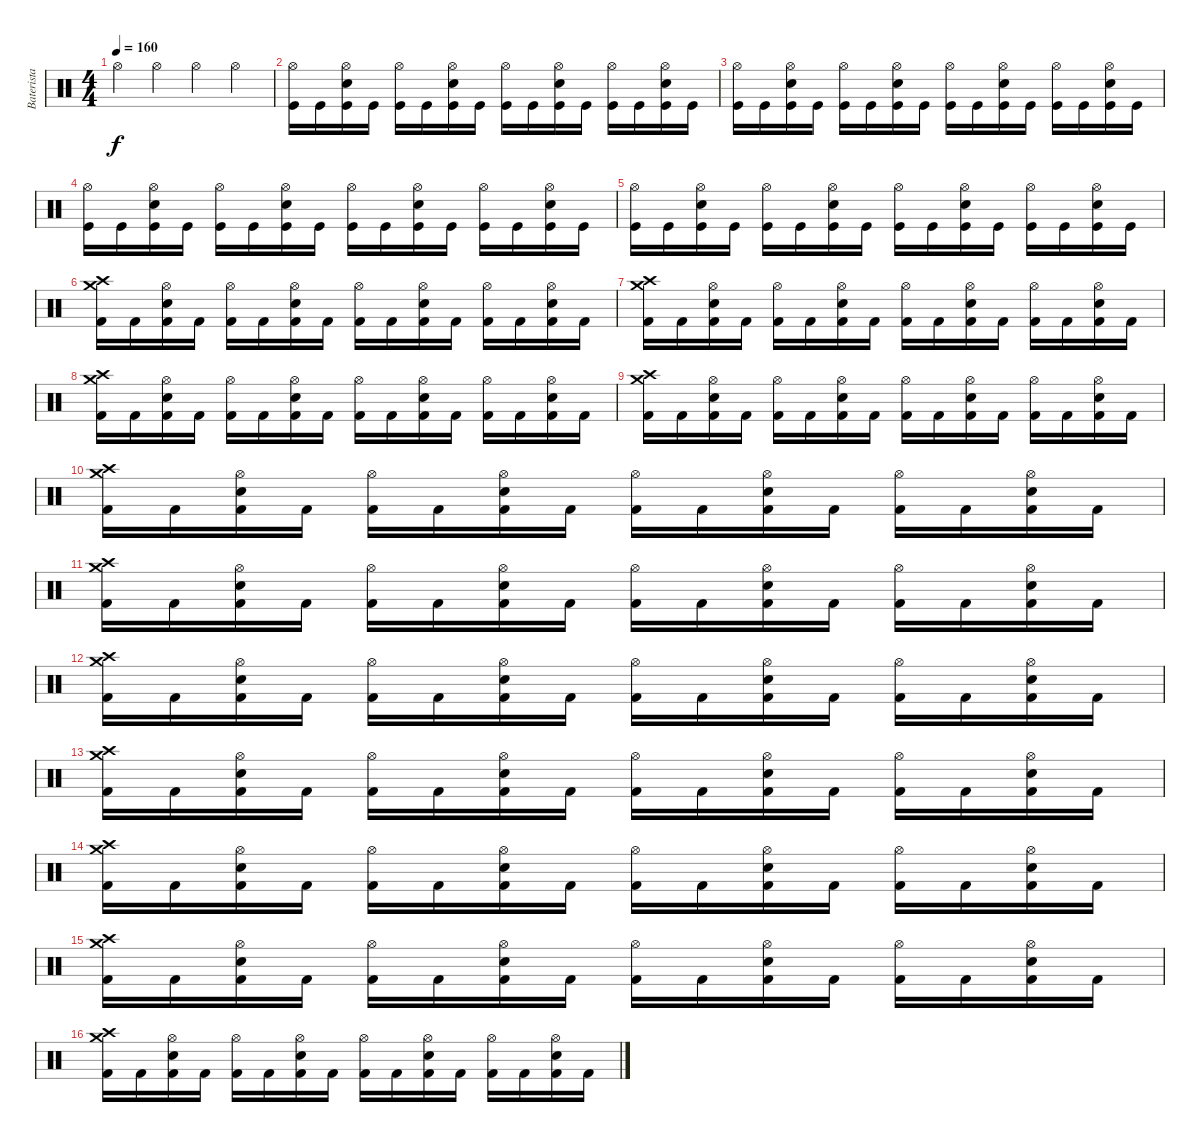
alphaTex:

\track ("Baterista" "Baterista") {instrument percussion}
\staff {score}
\articulation defaults
\ts (4 4)
\tempo 160
\clef neutral
\ks c "Hi-Hat (open)".4{dy f} "Hi-Hat (open)".4 "Hi-Hat (open)".4 "Hi-Hat (open)".4
|
("Hi-Hat (open)" "Kick (hit)").16 "Kick (hit)".16 ("Hi-Hat (open)" "Snare (hit) 2" "Kick (hit)").16 "Kick (hit)".16 ("Hi-Hat (open)" "Kick (hit)").16 "Kick (hit)".16 ("Hi-Hat (open)" "Snare (hit) 2" "Kick (hit)").16 "Kick (hit)".16 ("Hi-Hat (open)" "Kick (hit)").16 "Kick (hit)".16 ("Hi-Hat (open)" "Snare (hit) 2" "Kick (hit)").16 "Kick (hit)".16 ("Hi-Hat (open)" "Kick (hit)").16 "Kick (hit)".16 ("Hi-Hat (open)" "Snare (hit) 2" "Kick (hit)").16 "Kick (hit)".16 |
("Hi-Hat (open)" "Kick (hit)").16 "Kick (hit)".16 ("Hi-Hat (open)" "Snare (hit) 2" "Kick (hit)").16 "Kick (hit)".16 ("Hi-Hat (open)" "Kick (hit)").16 "Kick (hit)".16 ("Hi-Hat (open)" "Snare (hit) 2" "Kick (hit)").16 "Kick (hit)".16 ("Hi-Hat (open)" "Kick (hit)").16 "Kick (hit)".16 ("Hi-Hat (open)" "Snare (hit) 2" "Kick (hit)").16 "Kick (hit)".16 ("Hi-Hat (open)" "Kick (hit)").16 "Kick (hit)".16 ("Hi-Hat (open)" "Snare (hit) 2" "Kick (hit)").16 "Kick (hit)".16 |
("Hi-Hat (open)" "Kick (hit)").16 "Kick (hit)".16 ("Hi-Hat (open)" "Snare (hit) 2" "Kick (hit)").16 "Kick (hit)".16 ("Hi-Hat (open)" "Kick (hit)").16 "Kick (hit)".16 ("Hi-Hat (open)" "Snare (hit) 2" "Kick (hit)").16 "Kick (hit)".16 ("Hi-Hat (open)" "Kick (hit)").16 "Kick (hit)".16 ("Hi-Hat (open)" "Snare (hit) 2" "Kick (hit)").16 "Kick (hit)".16 ("Hi-Hat (open)" "Kick (hit)").16 "Kick (hit)".16 ("Hi-Hat (open)" "Snare (hit) 2" "Kick (hit)").16 "Kick (hit)".16 |
("Hi-Hat (open)" "Kick (hit)").16 "Kick (hit)".16 ("Hi-Hat (open)" "Snare (hit) 2" "Kick (hit)").16 "Kick (hit)".16 ("Hi-Hat (open)" "Kick (hit)").16 "Kick (hit)".16 ("Hi-Hat (open)" "Snare (hit) 2" "Kick (hit)").16 "Kick (hit)".16 ("Hi-Hat (open)" "Kick (hit)").16 "Kick (hit)".16 ("Hi-Hat (open)" "Snare (hit) 2" "Kick (hit)").16 "Kick (hit)".16 ("Hi-Hat (open)" "Kick (hit)").16 "Kick (hit)".16 ("Hi-Hat (open)" "Snare (hit) 2" "Kick (hit)").16 "Kick (hit)".16 |
("Kick (hit) 2" "Crash high (hit)" "Crash medium (hit)").16 "Kick (hit) 2".16 ("Kick (hit) 2" "Electric Snare (hit)" "Hi-Hat (open)").16 "Kick (hit) 2".16 ("Kick (hit) 2" "Hi-Hat (open)").16 "Kick (hit) 2".16 ("Kick (hit) 2" "Electric Snare (hit)" "Hi-Hat (open)").16 "Kick (hit) 2".16 ("Kick (hit) 2" "Hi-Hat (open)").16 "Kick (hit) 2".16 ("Kick (hit) 2" "Electric Snare (hit)" "Hi-Hat (open)").16 "Kick (hit) 2".16 ("Kick (hit) 2" "Hi-Hat (open)").16 "Kick (hit) 2".16 ("Kick (hit) 2" "Electric Snare (hit)" "Hi-Hat (open)").16 "Kick (hit) 2".16 |
("Kick (hit) 2" "Crash high (hit)" "Crash medium (hit)").16 "Kick (hit) 2".16 ("Kick (hit) 2" "Electric Snare (hit)" "Hi-Hat (open)").16 "Kick (hit) 2".16 ("Kick (hit) 2" "Hi-Hat (open)").16 "Kick (hit) 2".16 ("Kick (hit) 2" "Electric Snare (hit)" "Hi-Hat (open)").16 "Kick (hit) 2".16 ("Kick (hit) 2" "Hi-Hat (open)").16 "Kick (hit) 2".16 ("Kick (hit) 2" "Electric Snare (hit)" "Hi-Hat (open)").16 "Kick (hit) 2".16 ("Kick (hit) 2" "Hi-Hat (open)").16 "Kick (hit) 2".16 ("Kick (hit) 2" "Electric Snare (hit)" "Hi-Hat (open)").16 "Kick (hit) 2".16 |
("Kick (hit) 2" "Crash high (hit)" "Crash medium (hit)").16 "Kick (hit) 2".16 ("Kick (hit) 2" "Electric Snare (hit)" "Hi-Hat (open)").16 "Kick (hit) 2".16 ("Kick (hit) 2" "Hi-Hat (open)").16 "Kick (hit) 2".16 ("Kick (hit) 2" "Electric Snare (hit)" "Hi-Hat (open)").16 "Kick (hit) 2".16 ("Kick (hit) 2" "Hi-Hat (open)").16 "Kick (hit) 2".16 ("Kick (hit) 2" "Electric Snare (hit)" "Hi-Hat (open)").16 "Kick (hit) 2".16 ("Kick (hit) 2" "Hi-Hat (open)").16 "Kick (hit) 2".16 ("Kick (hit) 2" "Electric Snare (hit)" "Hi-Hat (open)").16 "Kick (hit) 2".16 |
("Kick (hit) 2" "Crash high (hit)" "Crash medium (hit)").16 "Kick (hit) 2".16 ("Kick (hit) 2" "Electric Snare (hit)" "Hi-Hat (open)").16 "Kick (hit) 2".16 ("Kick (hit) 2" "Hi-Hat (open)").16 "Kick (hit) 2".16 ("Kick (hit) 2" "Electric Snare (hit)" "Hi-Hat (open)").16 "Kick (hit) 2".16 ("Kick (hit) 2" "Hi-Hat (open)").16 "Kick (hit) 2".16 ("Kick (hit) 2" "Electric Snare (hit)" "Hi-Hat (open)").16 "Kick (hit) 2".16 ("Kick (hit) 2" "Hi-Hat (open)").16 "Kick (hit) 2".16 ("Kick (hit) 2" "Electric Snare (hit)" "Hi-Hat (open)").16 "Kick (hit) 2".16 |
("Kick (hit) 2" "Crash high (hit)" "Crash medium (hit)").16 "Kick (hit) 2".16 ("Kick (hit) 2" "Electric Snare (hit)" "Hi-Hat (open)").16 "Kick (hit) 2".16 ("Kick (hit) 2" "Hi-Hat (open)").16 "Kick (hit) 2".16 ("Kick (hit) 2" "Electric Snare (hit)" "Hi-Hat (open)").16 "Kick (hit) 2".16 ("Kick (hit) 2" "Hi-Hat (open)").16 "Kick (hit) 2".16 ("Kick (hit) 2" "Electric Snare (hit)" "Hi-Hat (open)").16 "Kick (hit) 2".16 ("Kick (hit) 2" "Hi-Hat (open)").16 "Kick (hit) 2".16 ("Kick (hit) 2" "Electric Snare (hit)" "Hi-Hat (open)").16 "Kick (hit) 2".16 |
("Kick (hit) 2" "Crash high (hit)" "Crash medium (hit)").16 "Kick (hit) 2".16 ("Kick (hit) 2" "Electric Snare (hit)" "Hi-Hat (open)").16 "Kick (hit) 2".16 ("Kick (hit) 2" "Hi-Hat (open)").16 "Kick (hit) 2".16 ("Kick (hit) 2" "Electric Snare (hit)" "Hi-Hat (open)").16 "Kick (hit) 2".16 ("Kick (hit) 2" "Hi-Hat (open)").16 "Kick (hit) 2".16 ("Kick (hit) 2" "Electric Snare (hit)" "Hi-Hat (open)").16 "Kick (hit) 2".16 ("Kick (hit) 2" "Hi-Hat (open)").16 "Kick (hit) 2".16 ("Kick (hit) 2" "Electric Snare (hit)" "Hi-Hat (open)").16 "Kick (hit) 2".16 |
("Kick (hit) 2" "Crash high (hit)" "Crash medium (hit)").16 "Kick (hit) 2".16 ("Kick (hit) 2" "Electric Snare (hit)" "Hi-Hat (open)").16 "Kick (hit) 2".16 ("Kick (hit) 2" "Hi-Hat (open)").16 "Kick (hit) 2".16 ("Kick (hit) 2" "Electric Snare (hit)" "Hi-Hat (open)").16 "Kick (hit) 2".16 ("Kick (hit) 2" "Hi-Hat (open)").16 "Kick (hit) 2".16 ("Kick (hit) 2" "Electric Snare (hit)" "Hi-Hat (open)").16 "Kick (hit) 2".16 ("Kick (hit) 2" "Hi-Hat (open)").16 "Kick (hit) 2".16 ("Kick (hit) 2" "Electric Snare (hit)" "Hi-Hat (open)").16 "Kick (hit) 2".16 |
("Kick (hit) 2" "Crash high (hit)" "Crash medium (hit)").16 "Kick (hit) 2".16 ("Kick (hit) 2" "Electric Snare (hit)" "Hi-Hat (open)").16 "Kick (hit) 2".16 ("Kick (hit) 2" "Hi-Hat (open)").16 "Kick (hit) 2".16 ("Kick (hit) 2" "Electric Snare (hit)" "Hi-Hat (open)").16 "Kick (hit) 2".16 ("Kick (hit) 2" "Hi-Hat (open)").16 "Kick (hit) 2".16 ("Kick (hit) 2" "Electric Snare (hit)" "Hi-Hat (open)").16 "Kick (hit) 2".16 ("Kick (hit) 2" "Hi-Hat (open)").16 "Kick (hit) 2".16 ("Kick (hit) 2" "Electric Snare (hit)" "Hi-Hat (open)").16 "Kick (hit) 2".16 |
("Kick (hit) 2" "Crash high (hit)" "Crash medium (hit)").16 "Kick (hit) 2".16 ("Kick (hit) 2" "Electric Snare (hit)" "Hi-Hat (open)").16 "Kick (hit) 2".16 ("Kick (hit) 2" "Hi-Hat (open)").16 "Kick (hit) 2".16 ("Kick (hit) 2" "Electric Snare (hit)" "Hi-Hat (open)").16 "Kick (hit) 2".16 ("Kick (hit) 2" "Hi-Hat (open)").16 "Kick (hit) 2".16 ("Kick (hit) 2" "Electric Snare (hit)" "Hi-Hat (open)").16 "Kick (hit) 2".16 ("Kick (hit) 2" "Hi-Hat (open)").16 "Kick (hit) 2".16 ("Kick (hit) 2" "Electric Snare (hit)" "Hi-Hat (open)").16 "Kick (hit) 2".16 |
("Kick (hit) 2" "Crash high (hit)" "Crash medium (hit)").16 "Kick (hit) 2".16 ("Kick (hit) 2" "Electric Snare (hit)" "Hi-Hat (open)").16 "Kick (hit) 2".16 ("Kick (hit) 2" "Hi-Hat (open)").16 "Kick (hit) 2".16 ("Kick (hit) 2" "Electric Snare (hit)" "Hi-Hat (open)").16 "Kick (hit) 2".16 ("Kick (hit) 2" "Hi-Hat (open)").16 "Kick (hit) 2".16 ("Kick (hit) 2" "Electric Snare (hit)" "Hi-Hat (open)").16 "Kick (hit) 2".16 ("Kick (hit) 2" "Hi-Hat (open)").16 "Kick (hit) 2".16 ("Kick (hit) 2" "Electric Snare (hit)" "Hi-Hat (open)").16 "Kick (hit) 2".16 |
("Kick (hit) 2" "Crash high (hit)" "Crash medium (hit)").16 "Kick (hit) 2".16 ("Kick (hit) 2" "Electric Snare (hit)" "Hi-Hat (open)").16 "Kick (hit) 2".16 ("Kick (hit) 2" "Hi-Hat (open)").16 "Kick (hit) 2".16 ("Kick (hit) 2" "Electric Snare (hit)" "Hi-Hat (open)").16 "Kick (hit) 2".16 ("Kick (hit) 2" "Hi-Hat (open)").16 "Kick (hit) 2".16 ("Kick (hit) 2" "Electric Snare (hit)" "Hi-Hat (open)").16 "Kick (hit) 2".16 ("Kick (hit) 2" "Hi-Hat (open)").16 "Kick (hit) 2".16 ("Kick (hit) 2" "Electric Snare (hit)" "Hi-Hat (open)").16 "Kick (hit) 2".16
